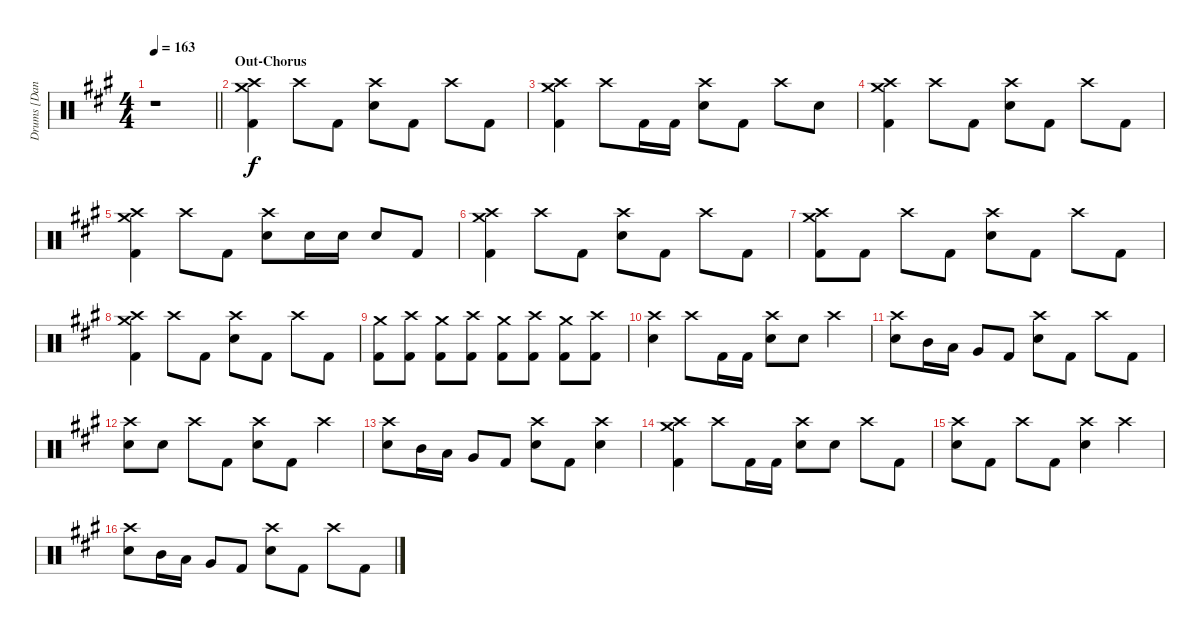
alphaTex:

\track ("Drums [Daniel Davison]" "Drums [Dan") {instrument percussion}
\staff {score}
\articulation defaults
\ts (4 4)
\tempo 163
\clef neutral
\barLineRight lightlight
\ks a
r.1{dy f} |
\section ("" "Out-Chorus")
("Crash medium (hit)" "Crash high (hit)" "Kick (hit) 2").4{volume 14} "Crash high (hit)".8 "Kick (hit) 2".8 ("Crash high (hit)" "Electric Snare (hit)").8 "Kick (hit) 2".8 "Crash high (hit)".8 "Kick (hit) 2".8 |
("Crash medium (hit)" "Crash high (hit)" "Kick (hit) 2").4 "Crash high (hit)".8 "Kick (hit) 2".16 "Kick (hit) 2".16 ("Crash high (hit)" "Electric Snare (hit)").8 "Kick (hit) 2".8 "Crash high (hit)".8 "Electric Snare (hit)".8 |
("Crash medium (hit)" "Crash high (hit)" "Kick (hit) 2").4 "Crash high (hit)".8 "Kick (hit) 2".8 ("Crash high (hit)" "Electric Snare (hit)").8 "Kick (hit) 2".8 "Crash high (hit)".8 "Kick (hit) 2".8 |
("Crash medium (hit)" "Crash high (hit)" "Kick (hit) 2").4 "Crash high (hit)".8 "Kick (hit) 2".8 ("Crash high (hit)" "Electric Snare (hit)").8 "Electric Snare (hit)".16 "Electric Snare (hit)".16 "Electric Snare (hit)".8 "Kick (hit) 2".8 |
("Crash medium (hit)" "Crash high (hit)" "Kick (hit) 2").4 "Crash high (hit)".8 "Kick (hit) 2".8 ("Crash high (hit)" "Electric Snare (hit)").8 "Kick (hit) 2".8 "Crash high (hit)".8 "Kick (hit) 2".8 |
("Crash medium (hit)" "Crash high (hit)" "Kick (hit) 2").8 "Kick (hit) 2".8 "Crash high (hit)".8 "Kick (hit) 2".8 ("Crash high (hit)" "Electric Snare (hit)").8 "Kick (hit) 2".8 "Crash high (hit)".8 "Kick (hit) 2".8 |
("Crash medium (hit)" "Crash high (hit)" "Kick (hit) 2").4 "Crash high (hit)".8 "Kick (hit) 2".8 ("Crash high (hit)" "Electric Snare (hit)").8 "Kick (hit) 2".8 "Crash high (hit)".8 "Kick (hit) 2".8 |
("Crash medium (hit)" "Kick (hit) 2").8 ("Crash high (hit)" "Kick (hit) 2").8 ("Crash medium (hit)" "Kick (hit) 2").8 ("Crash high (hit)" "Kick (hit) 2").8 ("Crash medium (hit)" "Kick (hit) 2").8 ("Crash high (hit)" "Kick (hit) 2").8 ("Crash medium (hit)" "Kick (hit) 2").8 ("Crash high (hit)" "Kick (hit) 2").8 |
("Crash high (hit)" "Electric Snare (hit)").4 "Crash high (hit)".8 "Kick (hit) 2".16 "Kick (hit) 2".16 ("Crash high (hit)" "Electric Snare (hit)").8 "Electric Snare (hit)".8 "Crash high (hit)".4 |
("Crash high (hit)" "Electric Snare (hit)").8 "Mid Tom (hit)".16 "Low Tom (hit)".16 "Very Low Tom (hit)".8 "Kick (hit) 2".8 ("Crash high (hit)" "Electric Snare (hit)").8 "Kick (hit) 2".8 "Crash high (hit)".8 "Kick (hit) 2".8 |
("Crash high (hit)" "Electric Snare (hit)").8 "Electric Snare (hit)".8 "Crash high (hit)".8 "Kick (hit) 2".8 ("Crash high (hit)" "Electric Snare (hit)").8 "Kick (hit) 2".8 "Crash high (hit)".4 |
("Crash high (hit)" "Electric Snare (hit)").8 "Mid Tom (hit)".16 "Low Tom (hit)".16 "Very Low Tom (hit)".8 "Kick (hit) 2".8 ("Crash high (hit)" "Electric Snare (hit)").8 "Kick (hit) 2".8 ("Crash high (hit)" "Electric Snare (hit)").4 |
("Crash medium (hit)" "Crash high (hit)" "Kick (hit) 2").4 "Crash high (hit)".8 "Kick (hit) 2".16 "Kick (hit) 2".16 ("Crash high (hit)" "Electric Snare (hit)").8 "Electric Snare (hit)".8 "Crash high (hit)".8 "Kick (hit) 2".8 |
("Crash high (hit)" "Electric Snare (hit)").8 "Kick (hit) 2".8 "Crash high (hit)".8 "Kick (hit) 2".8 ("Crash high (hit)" "Electric Snare (hit)").4 "Crash high (hit)".4 |
("Crash high (hit)" "Electric Snare (hit)").8 "Mid Tom (hit)".16 "Low Tom (hit)".16 "Very Low Tom (hit)".8 "Kick (hit) 2".8 ("Crash high (hit)" "Electric Snare (hit)").8 "Kick (hit) 2".8 "Crash high (hit)".8 "Kick (hit) 2".8
